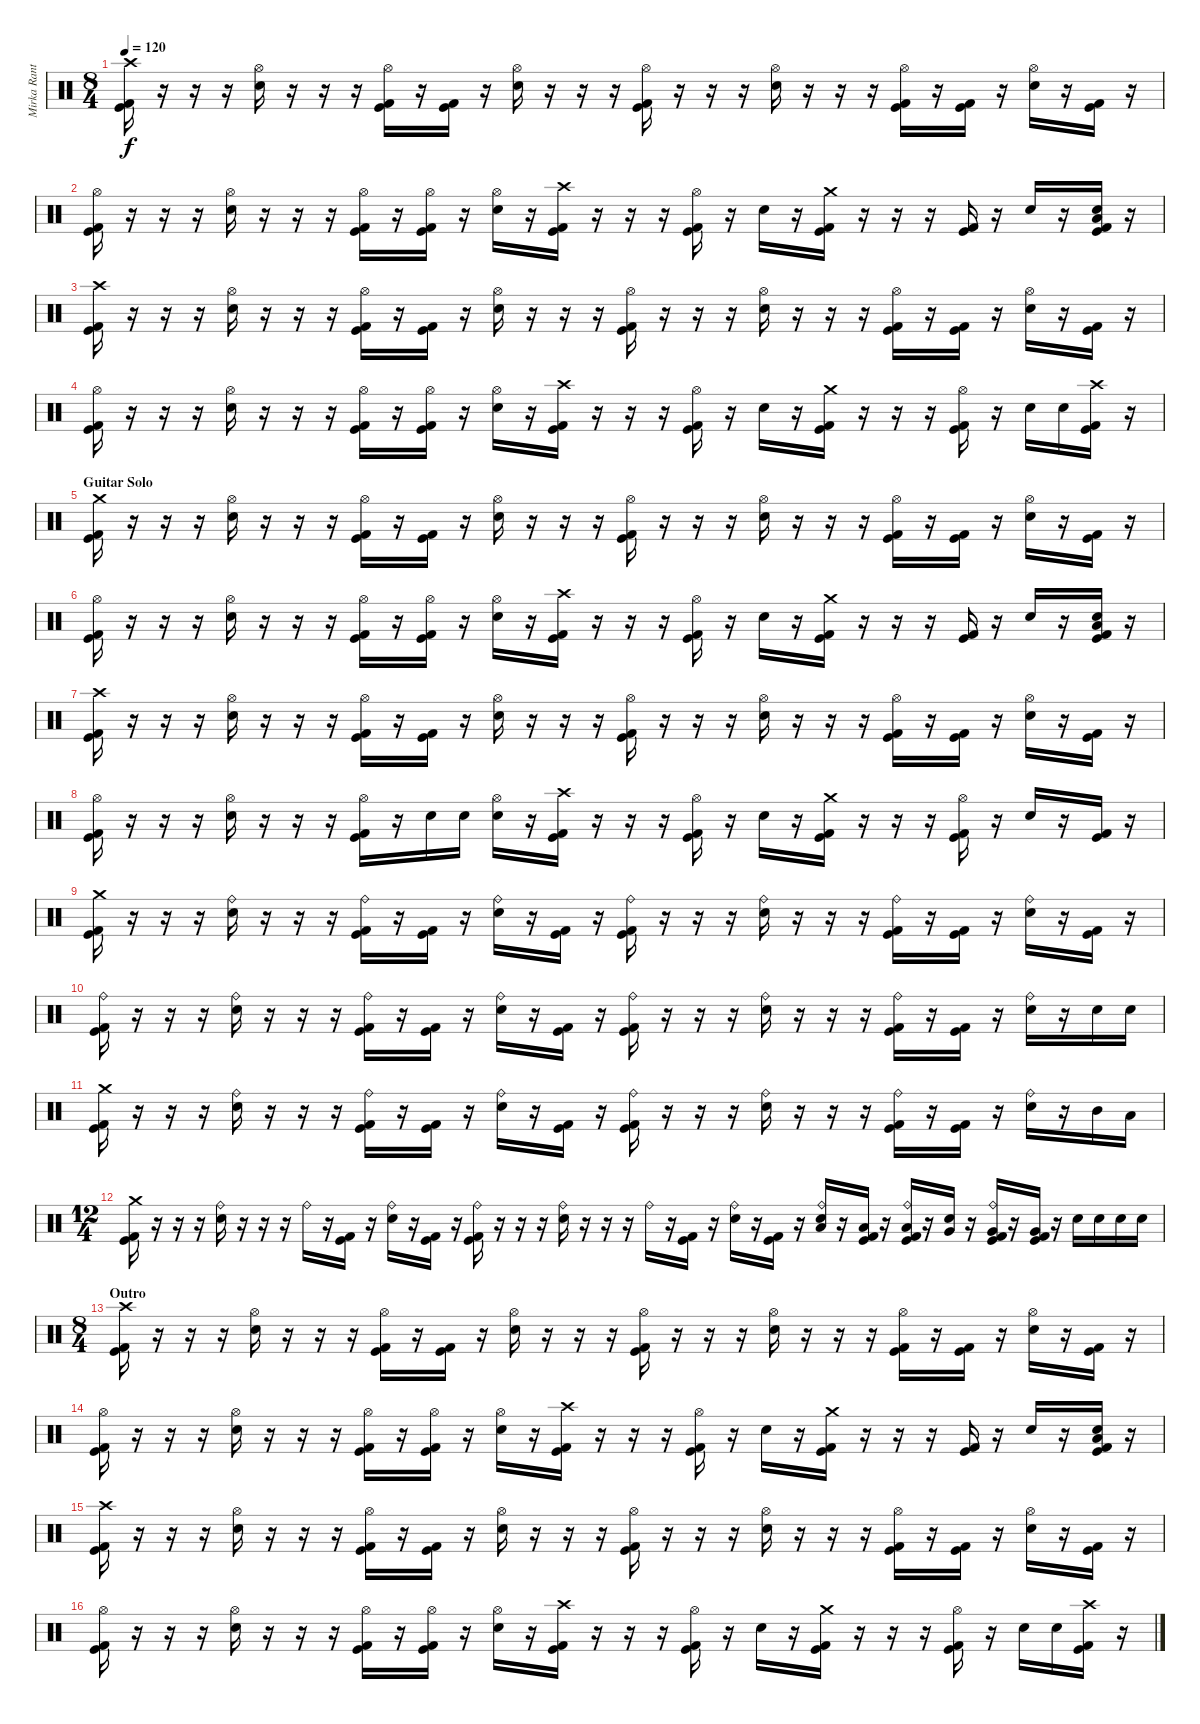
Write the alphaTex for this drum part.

\track ("Mirka Rantanen" "Mirka Rant") {instrument percussion}
\staff {score}
\articulation defaults
\ts (8 4)
\tempo 120
\clef neutral
\ks c
("Crash high (hit)" "Kick (hit) 2" "Kick (hit)").16{dy f} r.16 r.16 r.16 ("Hi-Hat (open)" "Electric Snare (hit)").16 r.16 r.16 r.16 ("Hi-Hat (open)" "Kick (hit) 2" "Kick (hit)").16 r.16 ("Kick (hit) 2" "Kick (hit)").16 r.16 ("Hi-Hat (open)" "Electric Snare (hit)").16 r.16 r.16 r.16 ("Hi-Hat (open)" "Kick (hit) 2" "Kick (hit)").16 r.16 r.16 r.16 ("Hi-Hat (open)" "Electric Snare (hit)").16 r.16 r.16 r.16 ("Hi-Hat (open)" "Kick (hit) 2" "Kick (hit)").16 r.16 ("Kick (hit) 2" "Kick (hit)").16 r.16 ("Hi-Hat (open)" "Electric Snare (hit)").16 r.16 ("Kick (hit) 2" "Kick (hit)").16 r.16 |
("Hi-Hat (open)" "Kick (hit) 2" "Kick (hit)").16 r.16 r.16 r.16 ("Hi-Hat (open)" "Electric Snare (hit)").16 r.16 r.16 r.16 ("Hi-Hat (open)" "Kick (hit) 2" "Kick (hit)").16 r.16 ("Hi-Hat (open)" "Kick (hit) 2" "Kick (hit)").16 r.16 ("Hi-Hat (open)" "Electric Snare (hit)").16 r.16 ("Crash high (hit)" "Kick (hit) 2" "Kick (hit)").16 r.16 r.16 r.16 ("Hi-Hat (open)" "Kick (hit) 2" "Kick (hit)").16 r.16 "Electric Snare (hit)".16 r.16 ("Crash medium (hit)" "Kick (hit) 2" "Kick (hit)").16 r.16 r.16 r.16 ("Kick (hit) 2" "Kick (hit)").16 r.16 "Electric Snare (hit)".16 r.16 ("Kick (hit) 2" "Kick (hit)" "Electric Snare (hit)" "Low Floor Tom (hit)").16 r.16 |
("Crash high (hit)" "Kick (hit) 2" "Kick (hit)").16 r.16 r.16 r.16 ("Hi-Hat (open)" "Electric Snare (hit)").16 r.16 r.16 r.16 ("Hi-Hat (open)" "Kick (hit) 2" "Kick (hit)").16 r.16 ("Kick (hit) 2" "Kick (hit)").16 r.16 ("Hi-Hat (open)" "Electric Snare (hit)").16 r.16 r.16 r.16 ("Hi-Hat (open)" "Kick (hit) 2" "Kick (hit)").16 r.16 r.16 r.16 ("Hi-Hat (open)" "Electric Snare (hit)").16 r.16 r.16 r.16 ("Hi-Hat (open)" "Kick (hit) 2" "Kick (hit)").16 r.16 ("Kick (hit) 2" "Kick (hit)").16 r.16 ("Hi-Hat (open)" "Electric Snare (hit)").16 r.16 ("Kick (hit) 2" "Kick (hit)").16 r.16 |
("Hi-Hat (open)" "Kick (hit) 2" "Kick (hit)").16 r.16 r.16 r.16 ("Hi-Hat (open)" "Electric Snare (hit)").16 r.16 r.16 r.16 ("Hi-Hat (open)" "Kick (hit) 2" "Kick (hit)").16 r.16 ("Hi-Hat (open)" "Kick (hit) 2" "Kick (hit)").16 r.16 ("Hi-Hat (open)" "Electric Snare (hit)").16 r.16 ("Crash high (hit)" "Kick (hit) 2" "Kick (hit)").16 r.16 r.16 r.16 ("Hi-Hat (open)" "Kick (hit) 2" "Kick (hit)").16 r.16 "Electric Snare (hit)".16 r.16 ("Crash medium (hit)" "Kick (hit) 2" "Kick (hit)").16 r.16 r.16 r.16 ("Hi-Hat (open)" "Kick (hit) 2" "Kick (hit)").16 r.16 "Electric Snare (hit)".16 "Electric Snare (hit)".16 ("Crash high (hit)" "Kick (hit) 2" "Kick (hit)").16 r.16 |
\section ("" "Guitar Solo")
("Crash medium (hit)" "Kick (hit) 2" "Kick (hit)").16 r.16 r.16 r.16 ("Hi-Hat (open)" "Electric Snare (hit)").16 r.16 r.16 r.16 ("Hi-Hat (open)" "Kick (hit) 2" "Kick (hit)").16 r.16 ("Kick (hit) 2" "Kick (hit)").16 r.16 ("Hi-Hat (open)" "Electric Snare (hit)").16 r.16 r.16 r.16 ("Hi-Hat (open)" "Kick (hit) 2" "Kick (hit)").16 r.16 r.16 r.16 ("Hi-Hat (open)" "Electric Snare (hit)").16 r.16 r.16 r.16 ("Hi-Hat (open)" "Kick (hit) 2" "Kick (hit)").16 r.16 ("Kick (hit) 2" "Kick (hit)").16 r.16 ("Hi-Hat (open)" "Electric Snare (hit)").16 r.16 ("Kick (hit) 2" "Kick (hit)").16 r.16 |
("Hi-Hat (open)" "Kick (hit) 2" "Kick (hit)").16 r.16 r.16 r.16 ("Hi-Hat (open)" "Electric Snare (hit)").16 r.16 r.16 r.16 ("Hi-Hat (open)" "Kick (hit) 2" "Kick (hit)").16 r.16 ("Hi-Hat (open)" "Kick (hit) 2" "Kick (hit)").16 r.16 ("Hi-Hat (open)" "Electric Snare (hit)").16 r.16 ("Crash high (hit)" "Kick (hit) 2" "Kick (hit)").16 r.16 r.16 r.16 ("Hi-Hat (open)" "Kick (hit) 2" "Kick (hit)").16 r.16 "Electric Snare (hit)".16 r.16 ("Crash medium (hit)" "Kick (hit) 2" "Kick (hit)").16 r.16 r.16 r.16 ("Kick (hit) 2" "Kick (hit)").16 r.16 "Electric Snare (hit)".16 r.16 ("Kick (hit) 2" "Kick (hit)" "Electric Snare (hit)" "Low Floor Tom (hit)").16 r.16 |
("Crash high (hit)" "Kick (hit) 2" "Kick (hit)").16 r.16 r.16 r.16 ("Hi-Hat (open)" "Electric Snare (hit)").16 r.16 r.16 r.16 ("Hi-Hat (open)" "Kick (hit) 2" "Kick (hit)").16 r.16 ("Kick (hit) 2" "Kick (hit)").16 r.16 ("Hi-Hat (open)" "Electric Snare (hit)").16 r.16 r.16 r.16 ("Hi-Hat (open)" "Kick (hit) 2" "Kick (hit)").16 r.16 r.16 r.16 ("Hi-Hat (open)" "Electric Snare (hit)").16 r.16 r.16 r.16 ("Hi-Hat (open)" "Kick (hit) 2" "Kick (hit)").16 r.16 ("Kick (hit) 2" "Kick (hit)").16 r.16 ("Hi-Hat (open)" "Electric Snare (hit)").16 r.16 ("Kick (hit) 2" "Kick (hit)").16 r.16 |
("Hi-Hat (open)" "Kick (hit) 2" "Kick (hit)").16 r.16 r.16 r.16 ("Hi-Hat (open)" "Electric Snare (hit)").16 r.16 r.16 r.16 ("Hi-Hat (open)" "Kick (hit) 2" "Kick (hit)").16 r.16 "Electric Snare (hit)".16 "Electric Snare (hit)".16 ("Hi-Hat (open)" "Electric Snare (hit)").16 r.16 ("Crash high (hit)" "Kick (hit) 2" "Kick (hit)").16 r.16 r.16 r.16 ("Hi-Hat (open)" "Kick (hit) 2" "Kick (hit)").16 r.16 "Electric Snare (hit)".16 r.16 ("Crash medium (hit)" "Kick (hit) 2" "Kick (hit)").16 r.16 r.16 r.16 ("Hi-Hat (open)" "Kick (hit) 2" "Kick (hit)").16 r.16 "Electric Snare (hit)".16 r.16 ("Kick (hit) 2" "Kick (hit)").16 r.16 |
("Crash medium (hit)" "Kick (hit) 2" "Kick (hit)").16 r.16 r.16 r.16 ("Ride (bell)" "Electric Snare (hit)").16 r.16 r.16 r.16 ("Ride (bell)" "Kick (hit) 2" "Kick (hit)").16 r.16 ("Kick (hit) 2" "Kick (hit)").16 r.16 ("Ride (bell)" "Electric Snare (hit)").16 r.16 ("Kick (hit) 2" "Kick (hit)").16 r.16 ("Ride (bell)" "Kick (hit) 2" "Kick (hit)").16 r.16 r.16 r.16 ("Ride (bell)" "Electric Snare (hit)").16 r.16 r.16 r.16 ("Ride (bell)" "Kick (hit) 2" "Kick (hit)").16 r.16 ("Kick (hit) 2" "Kick (hit)").16 r.16 ("Ride (bell)" "Electric Snare (hit)").16 r.16 ("Kick (hit) 2" "Kick (hit)").16 r.16 |
("Ride (bell)" "Kick (hit) 2" "Kick (hit)").16 r.16 r.16 r.16 ("Ride (bell)" "Electric Snare (hit)").16 r.16 r.16 r.16 ("Ride (bell)" "Kick (hit) 2" "Kick (hit)").16 r.16 ("Kick (hit) 2" "Kick (hit)").16 r.16 ("Ride (bell)" "Electric Snare (hit)").16 r.16 ("Kick (hit) 2" "Kick (hit)").16 r.16 ("Ride (bell)" "Kick (hit) 2" "Kick (hit)").16 r.16 r.16 r.16 ("Ride (bell)" "Electric Snare (hit)").16 r.16 r.16 r.16 ("Ride (bell)" "Kick (hit) 2" "Kick (hit)").16 r.16 ("Kick (hit) 2" "Kick (hit)").16 r.16 ("Ride (bell)" "Electric Snare (hit)").16 r.16 "Electric Snare (hit)".16 "Electric Snare (hit)".16 |
("Crash medium (hit)" "Kick (hit) 2" "Kick (hit)").16 r.16 r.16 r.16 ("Ride (bell)" "Electric Snare (hit)").16 r.16 r.16 r.16 ("Ride (bell)" "Kick (hit) 2" "Kick (hit)").16 r.16 ("Kick (hit) 2" "Kick (hit)").16 r.16 ("Ride (bell)" "Electric Snare (hit)").16 r.16 ("Kick (hit) 2" "Kick (hit)").16 r.16 ("Ride (bell)" "Kick (hit) 2" "Kick (hit)").16 r.16 r.16 r.16 ("Ride (bell)" "Electric Snare (hit)").16 r.16 r.16 r.16 ("Ride (bell)" "Kick (hit) 2" "Kick (hit)").16 r.16 ("Kick (hit) 2" "Kick (hit)").16 r.16 ("Ride (bell)" "Electric Snare (hit)").16 r.16 "Mid Tom (hit)".16 "Low Tom (hit)".16 |
\ts (12 4)
("Crash medium (hit)" "Kick (hit) 2" "Kick (hit)").16 r.16 r.16 r.16 ("Ride (bell)" "Electric Snare (hit)").16 r.16 r.16 r.16 "Ride (bell)".16 r.16 ("Kick (hit) 2" "Kick (hit)").16 r.16 ("Ride (bell)" "Electric Snare (hit)").16 r.16 ("Kick (hit) 2" "Kick (hit)").16 r.16 ("Ride (bell)" "Kick (hit) 2" "Kick (hit)").16 r.16 r.16 r.16 ("Ride (bell)" "Electric Snare (hit)").16 r.16 r.16 r.16 "Ride (bell)".16 r.16 ("Kick (hit) 2" "Kick (hit)").16 r.16 ("Ride (bell)" "Electric Snare (hit)").16 r.16 ("Kick (hit) 2" "Kick (hit)").16 r.16 ("Ride (bell)" "Low Tom (hit)" "Electric Snare (hit)").16 r.16 ("Low Tom (hit)" "Kick (hit) 2" "Kick (hit)").16 r.16 ("Ride (bell)" "Low Tom (hit)" "Kick (hit) 2" "Kick (hit)").16 r.16 ("Very Low Tom (hit)" "Electric Snare (hit)").16 r.16 ("Ride (bell)" "Very Low Tom (hit)" "Kick (hit) 2" "Kick (hit)").16 r.16 ("Very Low Tom (hit)" "Kick (hit) 2" "Kick (hit)").16 r.16 "Electric Snare (hit)".16 "Electric Snare (hit)".16 "Electric Snare (hit)".16 "Electric Snare (hit)".16 |
\ts (8 4)
\section ("" "Outro")
("Crash high (hit)" "Kick (hit) 2" "Kick (hit)").16 r.16 r.16 r.16 ("Hi-Hat (open)" "Electric Snare (hit)").16 r.16 r.16 r.16 ("Hi-Hat (open)" "Kick (hit) 2" "Kick (hit)").16 r.16 ("Kick (hit) 2" "Kick (hit)").16 r.16 ("Hi-Hat (open)" "Electric Snare (hit)").16 r.16 r.16 r.16 ("Hi-Hat (open)" "Kick (hit) 2" "Kick (hit)").16 r.16 r.16 r.16 ("Hi-Hat (open)" "Electric Snare (hit)").16 r.16 r.16 r.16 ("Hi-Hat (open)" "Kick (hit) 2" "Kick (hit)").16 r.16 ("Kick (hit) 2" "Kick (hit)").16 r.16 ("Hi-Hat (open)" "Electric Snare (hit)").16 r.16 ("Kick (hit) 2" "Kick (hit)").16 r.16 |
("Hi-Hat (open)" "Kick (hit) 2" "Kick (hit)").16 r.16 r.16 r.16 ("Hi-Hat (open)" "Electric Snare (hit)").16 r.16 r.16 r.16 ("Hi-Hat (open)" "Kick (hit) 2" "Kick (hit)").16 r.16 ("Hi-Hat (open)" "Kick (hit) 2" "Kick (hit)").16 r.16 ("Hi-Hat (open)" "Electric Snare (hit)").16 r.16 ("Crash high (hit)" "Kick (hit) 2" "Kick (hit)").16 r.16 r.16 r.16 ("Hi-Hat (open)" "Kick (hit) 2" "Kick (hit)").16 r.16 "Electric Snare (hit)".16 r.16 ("Crash medium (hit)" "Kick (hit) 2" "Kick (hit)").16 r.16 r.16 r.16 ("Kick (hit) 2" "Kick (hit)").16 r.16 "Electric Snare (hit)".16 r.16 ("Kick (hit) 2" "Kick (hit)" "Electric Snare (hit)" "Low Floor Tom (hit)").16 r.16 |
("Crash high (hit)" "Kick (hit) 2" "Kick (hit)").16 r.16 r.16 r.16 ("Hi-Hat (open)" "Electric Snare (hit)").16 r.16 r.16 r.16 ("Hi-Hat (open)" "Kick (hit) 2" "Kick (hit)").16 r.16 ("Kick (hit) 2" "Kick (hit)").16 r.16 ("Hi-Hat (open)" "Electric Snare (hit)").16 r.16 r.16 r.16 ("Hi-Hat (open)" "Kick (hit) 2" "Kick (hit)").16 r.16 r.16 r.16 ("Hi-Hat (open)" "Electric Snare (hit)").16 r.16 r.16 r.16 ("Hi-Hat (open)" "Kick (hit) 2" "Kick (hit)").16 r.16 ("Kick (hit) 2" "Kick (hit)").16 r.16 ("Hi-Hat (open)" "Electric Snare (hit)").16 r.16 ("Kick (hit) 2" "Kick (hit)").16 r.16 |
("Hi-Hat (open)" "Kick (hit) 2" "Kick (hit)").16 r.16 r.16 r.16 ("Hi-Hat (open)" "Electric Snare (hit)").16 r.16 r.16 r.16 ("Hi-Hat (open)" "Kick (hit) 2" "Kick (hit)").16 r.16 ("Hi-Hat (open)" "Kick (hit) 2" "Kick (hit)").16 r.16 ("Hi-Hat (open)" "Electric Snare (hit)").16 r.16 ("Crash high (hit)" "Kick (hit) 2" "Kick (hit)").16 r.16 r.16 r.16 ("Hi-Hat (open)" "Kick (hit) 2" "Kick (hit)").16 r.16 "Electric Snare (hit)".16 r.16 ("Crash medium (hit)" "Kick (hit) 2" "Kick (hit)").16 r.16 r.16 r.16 ("Hi-Hat (open)" "Kick (hit) 2" "Kick (hit)").16 r.16 "Electric Snare (hit)".16 "Electric Snare (hit)".16 ("Crash high (hit)" "Kick (hit) 2" "Kick (hit)").16 r.16
